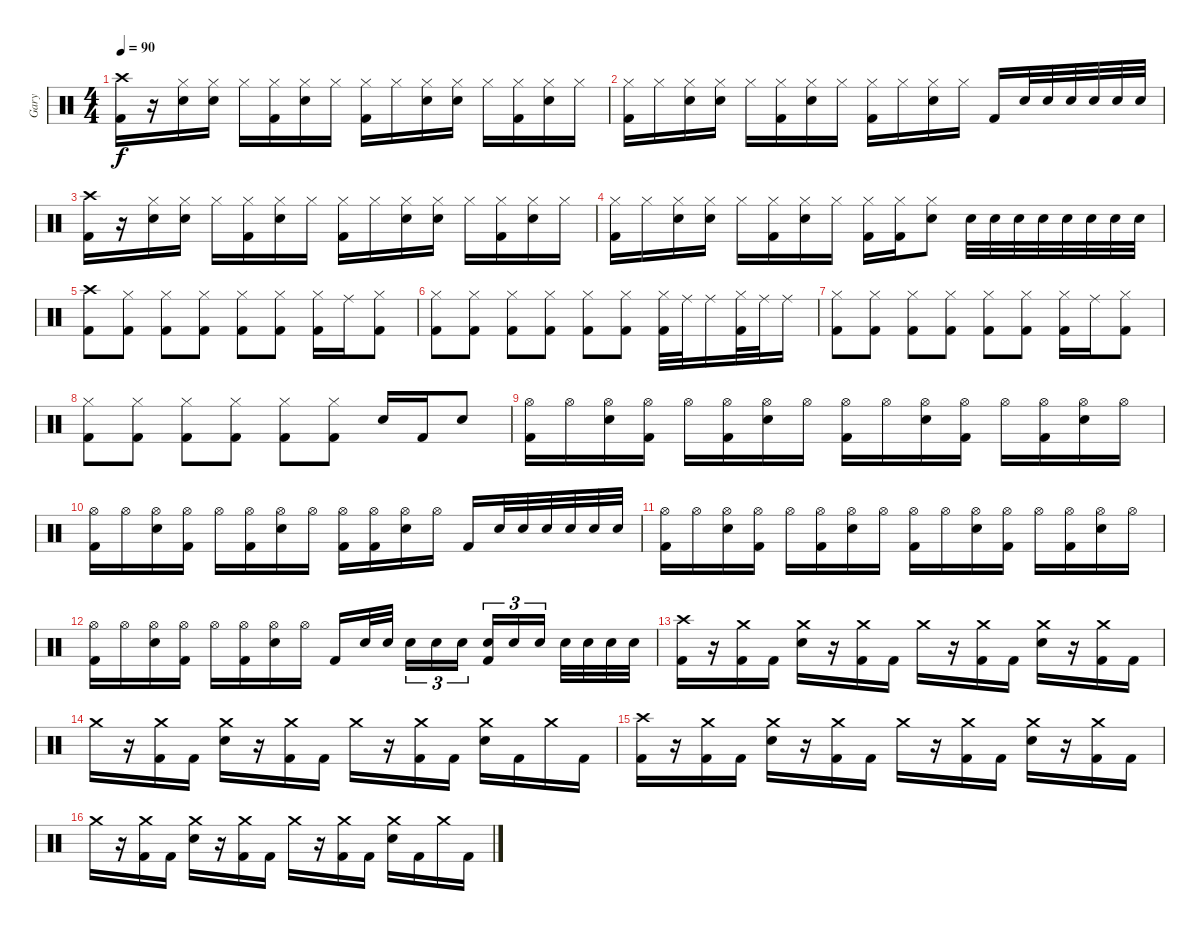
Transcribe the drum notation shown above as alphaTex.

\track ("Gary" "Gary") {instrument percussion}
\staff {score}
\articulation defaults
\ts (4 4)
\tempo 90
\clef neutral
\ks c
("Crash high (hit)" "Kick (hit) 2").16{dy f} r.16 ("Hi-Hat (closed)" "Electric Snare (hit)").16 ("Hi-Hat (closed)" "Electric Snare (hit)").16 "Hi-Hat (closed)".16 ("Hi-Hat (closed)" "Kick (hit) 2").16 ("Hi-Hat (closed)" "Electric Snare (hit)").16 "Hi-Hat (closed)".16 ("Hi-Hat (closed)" "Kick (hit) 2").16 "Hi-Hat (closed)".16 ("Hi-Hat (closed)" "Electric Snare (hit)").16 ("Hi-Hat (closed)" "Electric Snare (hit)").16 "Hi-Hat (closed)".16 ("Hi-Hat (closed)" "Kick (hit) 2").16 ("Hi-Hat (closed)" "Electric Snare (hit)").16 "Hi-Hat (closed)".16 |
("Hi-Hat (closed)" "Kick (hit) 2").16 "Hi-Hat (closed)".16 ("Hi-Hat (closed)" "Electric Snare (hit)").16 ("Hi-Hat (closed)" "Electric Snare (hit)").16 "Hi-Hat (closed)".16 ("Hi-Hat (closed)" "Kick (hit) 2").16 ("Hi-Hat (closed)" "Electric Snare (hit)").16 "Hi-Hat (closed)".16 ("Hi-Hat (closed)" "Kick (hit) 2").16 "Hi-Hat (closed)".16 ("Hi-Hat (closed)" "Electric Snare (hit)").16 "Hi-Hat (closed)".16 "Kick (hit) 2".16 "Electric Snare (hit)".32 "Electric Snare (hit)".32 "Electric Snare (hit)".32 "Electric Snare (hit)".32 "Electric Snare (hit)".32 "Electric Snare (hit)".32 |
("Crash high (hit)" "Kick (hit) 2").16 r.16 ("Hi-Hat (closed)" "Electric Snare (hit)").16 ("Hi-Hat (closed)" "Electric Snare (hit)").16 "Hi-Hat (closed)".16 ("Hi-Hat (closed)" "Kick (hit) 2").16 ("Hi-Hat (closed)" "Electric Snare (hit)").16 "Hi-Hat (closed)".16 ("Hi-Hat (closed)" "Kick (hit) 2").16 "Hi-Hat (closed)".16 ("Hi-Hat (closed)" "Electric Snare (hit)").16 ("Hi-Hat (closed)" "Electric Snare (hit)").16 "Hi-Hat (closed)".16 ("Hi-Hat (closed)" "Kick (hit) 2").16 ("Hi-Hat (closed)" "Electric Snare (hit)").16 "Hi-Hat (closed)".16 |
("Hi-Hat (closed)" "Kick (hit) 2").16 "Hi-Hat (closed)".16 ("Hi-Hat (closed)" "Electric Snare (hit)").16 ("Hi-Hat (closed)" "Electric Snare (hit)").16 "Hi-Hat (closed)".16 ("Hi-Hat (closed)" "Kick (hit) 2").16 ("Hi-Hat (closed)" "Electric Snare (hit)").16 "Hi-Hat (closed)".16 ("Hi-Hat (closed)" "Kick (hit) 2").16 ("Hi-Hat (closed)" "Kick (hit) 2").16 ("Hi-Hat (closed)" "Electric Snare (hit)").8 "Electric Snare (hit)".32 "Electric Snare (hit)".32 "Electric Snare (hit)".32 "Electric Snare (hit)".32 "Electric Snare (hit)".32 "Electric Snare (hit)".32 "Electric Snare (hit)".32 "Electric Snare (hit)".32 |
("Crash high (hit)" "Kick (hit) 2").8 ("Hi-Hat (closed)" "Kick (hit) 2").8 ("Hi-Hat (closed)" "Kick (hit) 2").8 ("Hi-Hat (closed)" "Kick (hit) 2").8 ("Hi-Hat (closed)" "Kick (hit) 2").8 ("Hi-Hat (closed)" "Kick (hit) 2").8 ("Hi-Hat (closed)" "Kick (hit) 2").16 "Ride (middle)".16 ("Hi-Hat (closed)" "Kick (hit) 2").8 |
("Hi-Hat (closed)" "Kick (hit) 2").8 ("Hi-Hat (closed)" "Kick (hit) 2").8 ("Hi-Hat (closed)" "Kick (hit) 2").8 ("Hi-Hat (closed)" "Kick (hit) 2").8 ("Hi-Hat (closed)" "Kick (hit) 2").8 ("Hi-Hat (closed)" "Kick (hit) 2").8 ("Hi-Hat (closed)" "Kick (hit) 2").32 "Ride (middle)".32 "Ride (middle)".16 ("Hi-Hat (closed)" "Kick (hit) 2").32 "Ride (middle)".32 "Ride (middle)".16 |
("Hi-Hat (closed)" "Kick (hit) 2").8 ("Hi-Hat (closed)" "Kick (hit) 2").8 ("Hi-Hat (closed)" "Kick (hit) 2").8 ("Hi-Hat (closed)" "Kick (hit) 2").8 ("Hi-Hat (closed)" "Kick (hit) 2").8 ("Hi-Hat (closed)" "Kick (hit) 2").8 ("Hi-Hat (closed)" "Kick (hit) 2").16 "Ride (middle)".16 ("Hi-Hat (closed)" "Kick (hit) 2").8 |
("Hi-Hat (closed)" "Kick (hit) 2").8 ("Hi-Hat (closed)" "Kick (hit) 2").8 ("Hi-Hat (closed)" "Kick (hit) 2").8 ("Hi-Hat (closed)" "Kick (hit) 2").8 ("Hi-Hat (closed)" "Kick (hit) 2").8 ("Hi-Hat (closed)" "Kick (hit) 2").8 "Electric Snare (hit)".16 "Kick (hit) 2".16 "Electric Snare (hit)".8 |
("Hi-Hat (open)" "Kick (hit) 2").16 "Hi-Hat (open)".16 ("Hi-Hat (open)" "Electric Snare (hit)").16 ("Hi-Hat (open)" "Kick (hit) 2").16 "Hi-Hat (open)".16 ("Hi-Hat (open)" "Kick (hit) 2").16 ("Hi-Hat (open)" "Electric Snare (hit)").16 "Hi-Hat (open)".16 ("Hi-Hat (open)" "Kick (hit) 2").16 "Hi-Hat (open)".16 ("Hi-Hat (open)" "Electric Snare (hit)").16 ("Hi-Hat (open)" "Kick (hit) 2").16 "Hi-Hat (open)".16 ("Hi-Hat (open)" "Kick (hit) 2").16 ("Hi-Hat (open)" "Electric Snare (hit)").16 "Hi-Hat (open)".16 |
("Hi-Hat (open)" "Kick (hit) 2").16 "Hi-Hat (open)".16 ("Hi-Hat (open)" "Electric Snare (hit)").16 ("Hi-Hat (open)" "Kick (hit) 2").16 "Hi-Hat (open)".16 ("Hi-Hat (open)" "Kick (hit) 2").16 ("Hi-Hat (open)" "Electric Snare (hit)").16 "Hi-Hat (open)".16 ("Hi-Hat (open)" "Kick (hit) 2").16 ("Hi-Hat (open)" "Kick (hit) 2").16 ("Hi-Hat (open)" "Electric Snare (hit)").16 "Hi-Hat (open)".16 "Kick (hit) 2".16 "Electric Snare (hit)".32 "Electric Snare (hit)".32 "Electric Snare (hit)".32 "Electric Snare (hit)".32 "Electric Snare (hit)".32 "Electric Snare (hit)".32 |
("Hi-Hat (open)" "Kick (hit) 2").16 "Hi-Hat (open)".16 ("Hi-Hat (open)" "Electric Snare (hit)").16 ("Hi-Hat (open)" "Kick (hit) 2").16 "Hi-Hat (open)".16 ("Hi-Hat (open)" "Kick (hit) 2").16 ("Hi-Hat (open)" "Electric Snare (hit)").16 "Hi-Hat (open)".16 ("Hi-Hat (open)" "Kick (hit) 2").16 "Hi-Hat (open)".16 ("Hi-Hat (open)" "Electric Snare (hit)").16 ("Hi-Hat (open)" "Kick (hit) 2").16 "Hi-Hat (open)".16 ("Hi-Hat (open)" "Kick (hit) 2").16 ("Hi-Hat (open)" "Electric Snare (hit)").16 "Hi-Hat (open)".16 |
("Hi-Hat (open)" "Kick (hit) 2").16 "Hi-Hat (open)".16 ("Hi-Hat (open)" "Electric Snare (hit)").16 ("Hi-Hat (open)" "Kick (hit) 2").16 "Hi-Hat (open)".16 ("Hi-Hat (open)" "Kick (hit) 2").16 ("Hi-Hat (open)" "Electric Snare (hit)").16 "Hi-Hat (open)".16 "Kick (hit) 2".16 "Electric Snare (hit)".32 "Electric Snare (hit)".32 "Electric Snare (hit)".16{tu (3 2)} "Electric Snare (hit)".16{tu (3 2)} "Electric Snare (hit)".16{tu (3 2)} ("Electric Snare (hit)" "Kick (hit) 2").16{tu (3 2)} "Electric Snare (hit)".16{tu (3 2)} "Electric Snare (hit)".16{tu (3 2)} "Electric Snare (hit)".32 "Electric Snare (hit)".32 "Electric Snare (hit)".32 "Electric Snare (hit)".32 |
("Crash high (hit)" "Kick (hit) 2").16 r.16 ("Crash medium (hit)" "Kick (hit) 2").16 "Kick (hit) 2".16 ("Crash medium (hit)" "Electric Snare (hit)").16 r.16 ("Crash medium (hit)" "Kick (hit) 2").16 "Kick (hit) 2".16 "Crash medium (hit)".16 r.16 ("Crash medium (hit)" "Kick (hit) 2").16 "Kick (hit) 2".16 ("Crash medium (hit)" "Electric Snare (hit)").16 r.16 ("Crash medium (hit)" "Kick (hit) 2").16 "Kick (hit) 2".16 |
"Crash medium (hit)".16 r.16 ("Crash medium (hit)" "Kick (hit) 2").16 "Kick (hit) 2".16 ("Crash medium (hit)" "Electric Snare (hit)").16 r.16 ("Crash medium (hit)" "Kick (hit) 2").16 "Kick (hit) 2".16 "Crash medium (hit)".16 r.16 ("Crash medium (hit)" "Kick (hit) 2").16 "Kick (hit) 2".16 ("Crash medium (hit)" "Electric Snare (hit)").16 "Kick (hit) 2".16 "Crash medium (hit)".16 "Kick (hit) 2".16 |
("Crash high (hit)" "Kick (hit) 2").16 r.16 ("Crash medium (hit)" "Kick (hit) 2").16 "Kick (hit) 2".16 ("Crash medium (hit)" "Electric Snare (hit)").16 r.16 ("Crash medium (hit)" "Kick (hit) 2").16 "Kick (hit) 2".16 "Crash medium (hit)".16 r.16 ("Crash medium (hit)" "Kick (hit) 2").16 "Kick (hit) 2".16 ("Crash medium (hit)" "Electric Snare (hit)").16 r.16 ("Crash medium (hit)" "Kick (hit) 2").16 "Kick (hit) 2".16 |
"Crash medium (hit)".16 r.16 ("Crash medium (hit)" "Kick (hit) 2").16 "Kick (hit) 2".16 ("Crash medium (hit)" "Electric Snare (hit)").16 r.16 ("Crash medium (hit)" "Kick (hit) 2").16 "Kick (hit) 2".16 "Crash medium (hit)".16 r.16 ("Crash medium (hit)" "Kick (hit) 2").16 "Kick (hit) 2".16 ("Crash medium (hit)" "Electric Snare (hit)").16 "Kick (hit) 2".16 "Crash medium (hit)".16 "Kick (hit) 2".16
